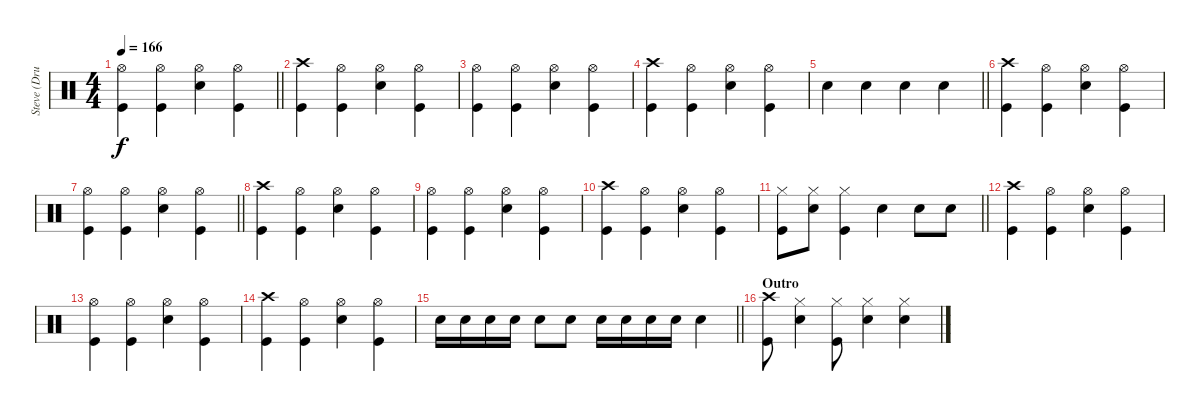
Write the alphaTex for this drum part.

\track ("Steve (Drums)" "Steve (Dru") {instrument percussion}
\staff {score}
\articulation defaults
\ts (4 4)
\tempo 166
\clef neutral
\barLineRight lightlight
\ks c
("Hi-Hat (open)" "Kick (hit)").4{dy f} ("Hi-Hat (open)" "Kick (hit)").4 ("Hi-Hat (open)" "Electric Snare (hit)").4 ("Hi-Hat (open)" "Kick (hit)").4 |
("Crash high (hit)" "Kick (hit)").4 ("Hi-Hat (open)" "Kick (hit)").4 ("Hi-Hat (open)" "Electric Snare (hit)").4 ("Hi-Hat (open)" "Kick (hit)").4 |
("Hi-Hat (open)" "Kick (hit)").4 ("Hi-Hat (open)" "Kick (hit)").4 ("Hi-Hat (open)" "Electric Snare (hit)").4 ("Hi-Hat (open)" "Kick (hit)").4 |
("Crash high (hit)" "Kick (hit)").4 ("Hi-Hat (open)" "Kick (hit)").4 ("Hi-Hat (open)" "Electric Snare (hit)").4 ("Hi-Hat (open)" "Kick (hit)").4 |
\barLineRight lightlight "Electric Snare (hit)".4 "Electric Snare (hit)".4 "Electric Snare (hit)".4 "Electric Snare (hit)".4
|
("Crash high (hit)" "Kick (hit)").4 ("Hi-Hat (open)" "Kick (hit)").4 ("Hi-Hat (open)" "Electric Snare (hit)").4 ("Hi-Hat (open)" "Kick (hit)").4 |
\barLineRight lightlight
("Hi-Hat (open)" "Kick (hit)").4 ("Hi-Hat (open)" "Kick (hit)").4 ("Hi-Hat (open)" "Electric Snare (hit)").4 ("Hi-Hat (open)" "Kick (hit)").4 |
("Crash high (hit)" "Kick (hit)").4 ("Hi-Hat (open)" "Kick (hit)").4 ("Hi-Hat (open)" "Electric Snare (hit)").4 ("Hi-Hat (open)" "Kick (hit)").4 |
("Hi-Hat (open)" "Kick (hit)").4 ("Hi-Hat (open)" "Kick (hit)").4 ("Hi-Hat (open)" "Electric Snare (hit)").4 ("Hi-Hat (open)" "Kick (hit)").4 |
("Crash high (hit)" "Kick (hit)").4 ("Hi-Hat (open)" "Kick (hit)").4 ("Hi-Hat (open)" "Electric Snare (hit)").4 ("Hi-Hat (open)" "Kick (hit)").4 |
\barLineRight lightlight
("Hi-Hat (closed)" "Kick (hit)").8 ("Hi-Hat (closed)" "Electric Snare (hit)").8 ("Hi-Hat (closed)" "Kick (hit)").4 "Electric Snare (hit)".4 "Electric Snare (hit)".8 "Electric Snare (hit)".8 |
("Crash high (hit)" "Kick (hit)").4 ("Hi-Hat (open)" "Kick (hit)").4 ("Hi-Hat (open)" "Electric Snare (hit)").4 ("Hi-Hat (open)" "Kick (hit)").4 |
("Hi-Hat (open)" "Kick (hit)").4 ("Hi-Hat (open)" "Kick (hit)").4 ("Hi-Hat (open)" "Electric Snare (hit)").4 ("Hi-Hat (open)" "Kick (hit)").4 |
("Crash high (hit)" "Kick (hit)").4 ("Hi-Hat (open)" "Kick (hit)").4 ("Hi-Hat (open)" "Electric Snare (hit)").4 ("Hi-Hat (open)" "Kick (hit)").4 |
\barLineRight lightlight "Electric Snare (hit)".16 "Electric Snare (hit)".16 "Electric Snare (hit)".16 "Electric Snare (hit)".16 "Electric Snare (hit)".8 "Electric Snare (hit)".8 "Electric Snare (hit)".16 "Electric Snare (hit)".16 "Electric Snare (hit)".16 "Electric Snare (hit)".16 "Electric Snare (hit)".4
|
\section ("" "Outro")
("Crash high (hit)" "Kick (hit)").8 ("Hi-Hat (closed)" "Electric Snare (hit)").4 ("Hi-Hat (closed)" "Kick (hit)").8 ("Hi-Hat (closed)" "Electric Snare (hit)").4 ("Hi-Hat (closed)" "Electric Snare (hit)").4
